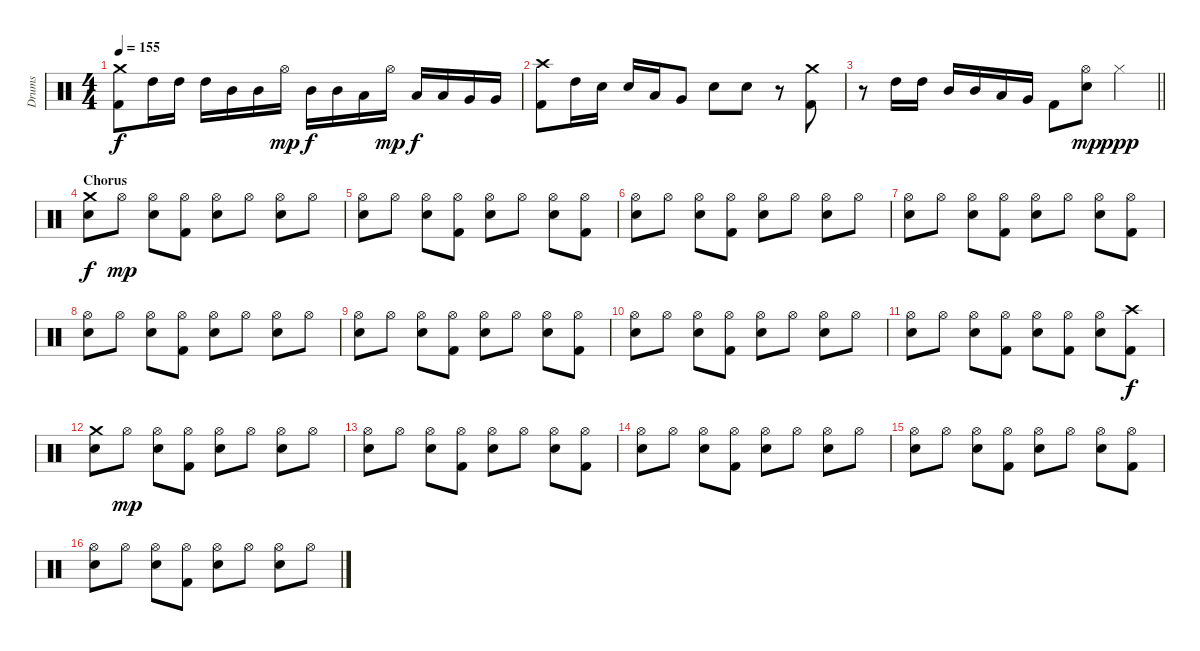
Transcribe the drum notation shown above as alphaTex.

\track ("Drums" "Drums") {instrument percussion}
\staff {score}
\articulation defaults
\ts (4 4)
\tempo 155
\clef neutral
\ks c
("Crash medium (hit)" "Kick (hit) 2").8{dy f} "High Tom (hit)".16 "High Tom (hit)".16 "High Tom (hit)".16 "Mid Tom (hit)".16 "Mid Tom (hit)".16 "Hi-Hat (open)".16{dy mp} "Mid Tom (hit)".16{dy f} "Mid Tom (hit)".16 "Low Tom (hit)".16 "Hi-Hat (open)".16{dy mp} "Low Tom (hit)".16{dy f} "Low Tom (hit)".16 "Very Low Tom (hit)".16 "Very Low Tom (hit)".16 |
("Crash high (hit)" "Kick (hit) 2").8 "High Tom (hit)".16 "Snare (hit) 2".16 "Snare (hit) 2".16 "Low Tom (hit)".16 "Very Low Tom (hit)".8 "Snare (hit) 2".8 "Snare (hit) 2".8 r.8 ("Crash medium (hit)" "Kick (hit) 2").8 |
\barLineRight lightlight
r.8 "High Tom (hit)".16 "High Tom (hit)".16 "Mid Tom (hit)".16 "Mid Tom (hit)".16 "Low Tom (hit)".16 "Very Low Tom (hit)".16 "Kick (hit) 2".8 ("Hi-Hat (open)" "Snare (hit) 2").8{dy mp} "Hi-Hat (closed)".4{dy ppp} |
\section ("" "Chorus")
("Crash medium (hit)" "Snare (hit) 2").8{dy f} "Hi-Hat (open)".8{dy mp} ("Hi-Hat (open)" "Snare (hit) 2").8 ("Hi-Hat (open)" "Kick (hit) 2").8 ("Hi-Hat (open)" "Snare (hit) 2").8 "Hi-Hat (open)".8 ("Hi-Hat (open)" "Snare (hit) 2").8 "Hi-Hat (open)".8 |
("Hi-Hat (open)" "Snare (hit) 2").8 "Hi-Hat (open)".8 ("Hi-Hat (open)" "Snare (hit) 2").8 ("Hi-Hat (open)" "Kick (hit) 2").8 ("Hi-Hat (open)" "Snare (hit) 2").8 "Hi-Hat (open)".8 ("Hi-Hat (open)" "Snare (hit) 2").8 ("Hi-Hat (open)" "Kick (hit) 2").8 |
("Hi-Hat (open)" "Snare (hit) 2").8 "Hi-Hat (open)".8 ("Hi-Hat (open)" "Snare (hit) 2").8 ("Hi-Hat (open)" "Kick (hit) 2").8 ("Hi-Hat (open)" "Snare (hit) 2").8 "Hi-Hat (open)".8 ("Hi-Hat (open)" "Snare (hit) 2").8 "Hi-Hat (open)".8 |
("Hi-Hat (open)" "Snare (hit) 2").8 "Hi-Hat (open)".8 ("Hi-Hat (open)" "Snare (hit) 2").8 ("Hi-Hat (open)" "Kick (hit) 2").8 ("Hi-Hat (open)" "Snare (hit) 2").8 "Hi-Hat (open)".8 ("Hi-Hat (open)" "Snare (hit) 2").8 ("Hi-Hat (open)" "Kick (hit) 2").8 |
("Hi-Hat (open)" "Snare (hit) 2").8 "Hi-Hat (open)".8 ("Hi-Hat (open)" "Snare (hit) 2").8 ("Hi-Hat (open)" "Kick (hit) 2").8 ("Hi-Hat (open)" "Snare (hit) 2").8 "Hi-Hat (open)".8 ("Hi-Hat (open)" "Snare (hit) 2").8 "Hi-Hat (open)".8 |
("Hi-Hat (open)" "Snare (hit) 2").8 "Hi-Hat (open)".8 ("Hi-Hat (open)" "Snare (hit) 2").8 ("Hi-Hat (open)" "Kick (hit) 2").8 ("Hi-Hat (open)" "Snare (hit) 2").8 "Hi-Hat (open)".8 ("Hi-Hat (open)" "Snare (hit) 2").8 ("Hi-Hat (open)" "Kick (hit) 2").8 |
("Hi-Hat (open)" "Snare (hit) 2").8 "Hi-Hat (open)".8 ("Hi-Hat (open)" "Snare (hit) 2").8 ("Hi-Hat (open)" "Kick (hit) 2").8 ("Hi-Hat (open)" "Snare (hit) 2").8 "Hi-Hat (open)".8 ("Hi-Hat (open)" "Snare (hit) 2").8 "Hi-Hat (open)".8 |
("Hi-Hat (open)" "Snare (hit) 2").8 "Hi-Hat (open)".8 ("Hi-Hat (open)" "Snare (hit) 2").8 ("Hi-Hat (open)" "Kick (hit) 2").8 ("Hi-Hat (open)" "Snare (hit) 2").8 ("Hi-Hat (open)" "Kick (hit) 2").8 ("Hi-Hat (open)" "Snare (hit) 2").8 ("Crash high (hit)" "Kick (hit) 2").8{dy f} |
("Crash medium (hit)" "Snare (hit) 2").8 "Hi-Hat (open)".8{dy mp} ("Hi-Hat (open)" "Snare (hit) 2").8 ("Hi-Hat (open)" "Kick (hit) 2").8 ("Hi-Hat (open)" "Snare (hit) 2").8 "Hi-Hat (open)".8 ("Hi-Hat (open)" "Snare (hit) 2").8 "Hi-Hat (open)".8 |
("Hi-Hat (open)" "Snare (hit) 2").8 "Hi-Hat (open)".8 ("Hi-Hat (open)" "Snare (hit) 2").8 ("Hi-Hat (open)" "Kick (hit) 2").8 ("Hi-Hat (open)" "Snare (hit) 2").8 "Hi-Hat (open)".8 ("Hi-Hat (open)" "Snare (hit) 2").8 ("Hi-Hat (open)" "Kick (hit) 2").8 |
("Hi-Hat (open)" "Snare (hit) 2").8 "Hi-Hat (open)".8 ("Hi-Hat (open)" "Snare (hit) 2").8 ("Hi-Hat (open)" "Kick (hit) 2").8 ("Hi-Hat (open)" "Snare (hit) 2").8 "Hi-Hat (open)".8 ("Hi-Hat (open)" "Snare (hit) 2").8 "Hi-Hat (open)".8 |
("Hi-Hat (open)" "Snare (hit) 2").8 "Hi-Hat (open)".8 ("Hi-Hat (open)" "Snare (hit) 2").8 ("Hi-Hat (open)" "Kick (hit) 2").8 ("Hi-Hat (open)" "Snare (hit) 2").8 "Hi-Hat (open)".8 ("Hi-Hat (open)" "Snare (hit) 2").8 ("Hi-Hat (open)" "Kick (hit) 2").8 |
("Hi-Hat (open)" "Snare (hit) 2").8 "Hi-Hat (open)".8 ("Hi-Hat (open)" "Snare (hit) 2").8 ("Hi-Hat (open)" "Kick (hit) 2").8 ("Hi-Hat (open)" "Snare (hit) 2").8 "Hi-Hat (open)".8 ("Hi-Hat (open)" "Snare (hit) 2").8 "Hi-Hat (open)".8
